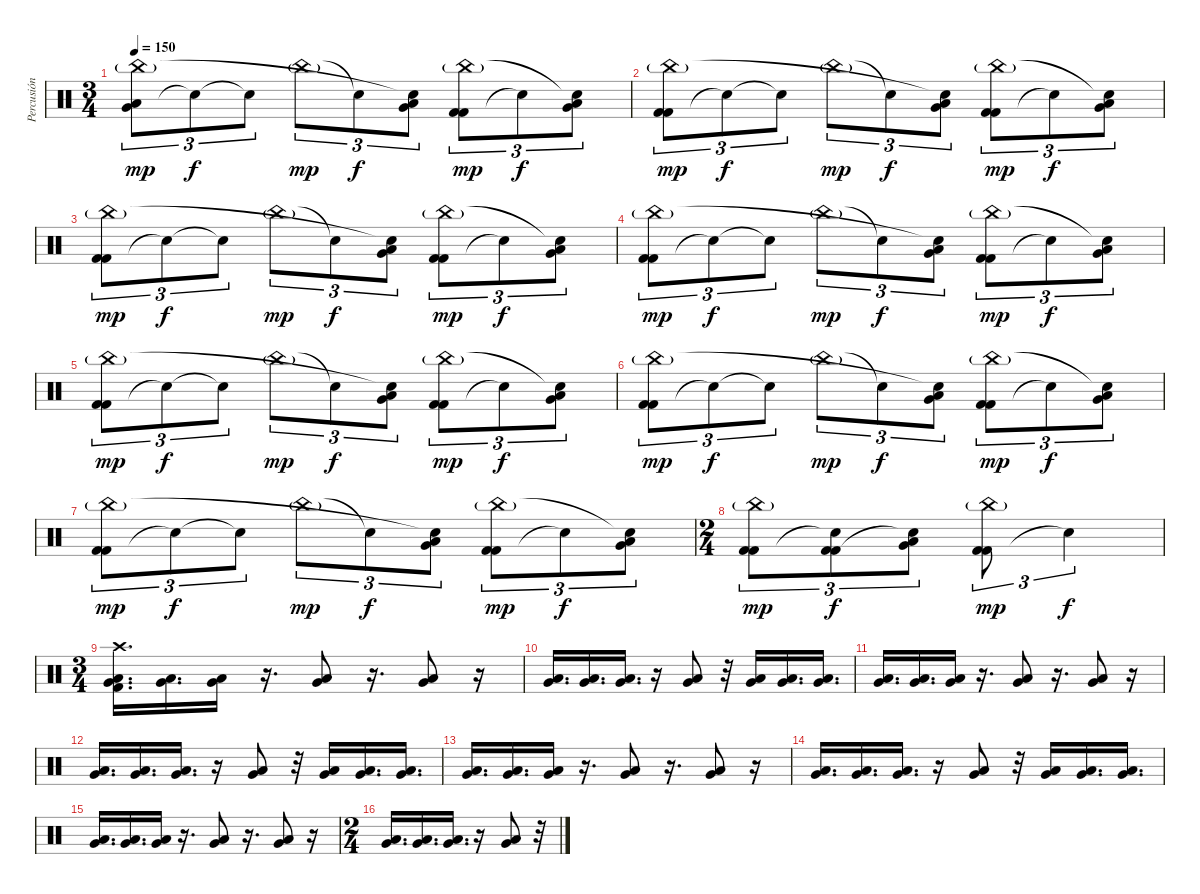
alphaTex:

\track ("Percusión" "Percusión") {instrument percussion}
\staff {score}
\articulation defaults
\ts (3 4)
\tempo 150
\clef neutral
\ks c
("Low Floor Tom (hit)" "Very Low Tom (hit)" "China (hit)"{g}).8{tu (3 2) dy mp} "Snare (hit)"{t}.8{tu (3 2) dy f} "Snare (hit)"{t}.8{tu (3 2)} "China (hit)"{g}.8{tu (3 2) dy mp} "Snare (hit)"{t}.8{tu (3 2) dy f} ("Low Floor Tom (hit)" "Very Low Tom (hit)" "Snare (hit)"{t}).8{tu (3 2)} ("Kick (hit) 2" "Kick (hit) 2" "China (hit)"{g}).8{tu (3 2) dy mp} "Snare (hit)"{t}.8{tu (3 2) dy f} ("Low Floor Tom (hit)" "Very Low Tom (hit)" "Snare (hit)"{t}).8{tu (3 2)} |
("Kick (hit) 2" "Kick (hit) 2" "China (hit)"{g}).8{tu (3 2) dy mp} "Snare (hit)"{t}.8{tu (3 2) dy f} "Snare (hit)"{t}.8{tu (3 2)} "China (hit)"{g}.8{tu (3 2) dy mp} "Snare (hit)"{t}.8{tu (3 2) dy f} ("Low Floor Tom (hit)" "Very Low Tom (hit)" "Snare (hit)"{t}).8{tu (3 2)} ("Kick (hit) 2" "Kick (hit) 2" "China (hit)"{g}).8{tu (3 2) dy mp} "Snare (hit)"{t}.8{tu (3 2) dy f} ("Low Floor Tom (hit)" "Very Low Tom (hit)" "Snare (hit)"{t}).8{tu (3 2)} |
("Kick (hit) 2" "Kick (hit) 2" "China (hit)"{g}).8{tu (3 2) dy mp} "Snare (hit)"{t}.8{tu (3 2) dy f} "Snare (hit)"{t}.8{tu (3 2)} "China (hit)"{g}.8{tu (3 2) dy mp} "Snare (hit)"{t}.8{tu (3 2) dy f} ("Low Floor Tom (hit)" "Very Low Tom (hit)" "Snare (hit)"{t}).8{tu (3 2)} ("Kick (hit) 2" "Kick (hit) 2" "China (hit)"{g}).8{tu (3 2) dy mp} "Snare (hit)"{t}.8{tu (3 2) dy f} ("Low Floor Tom (hit)" "Very Low Tom (hit)" "Snare (hit)"{t}).8{tu (3 2)} |
("Kick (hit) 2" "Kick (hit) 2" "China (hit)"{g}).8{tu (3 2) dy mp} "Snare (hit)"{t}.8{tu (3 2) dy f} "Snare (hit)"{t}.8{tu (3 2)} "China (hit)"{g}.8{tu (3 2) dy mp} "Snare (hit)"{t}.8{tu (3 2) dy f} ("Low Floor Tom (hit)" "Very Low Tom (hit)" "Snare (hit)"{t}).8{tu (3 2)} ("Kick (hit) 2" "Kick (hit) 2" "China (hit)"{g}).8{tu (3 2) dy mp} "Snare (hit)"{t}.8{tu (3 2) dy f} ("Low Floor Tom (hit)" "Very Low Tom (hit)" "Snare (hit)"{t}).8{tu (3 2)} |
("Kick (hit) 2" "Kick (hit) 2" "China (hit)"{g}).8{tu (3 2) dy mp} "Snare (hit)"{t}.8{tu (3 2) dy f} "Snare (hit)"{t}.8{tu (3 2)} "China (hit)"{g}.8{tu (3 2) dy mp} "Snare (hit)"{t}.8{tu (3 2) dy f} ("Low Floor Tom (hit)" "Very Low Tom (hit)" "Snare (hit)"{t}).8{tu (3 2)} ("Kick (hit) 2" "Kick (hit) 2" "China (hit)"{g}).8{tu (3 2) dy mp} "Snare (hit)"{t}.8{tu (3 2) dy f} ("Low Floor Tom (hit)" "Very Low Tom (hit)" "Snare (hit)"{t}).8{tu (3 2)} |
("Kick (hit) 2" "Kick (hit) 2" "China (hit)"{g}).8{tu (3 2) dy mp} "Snare (hit)"{t}.8{tu (3 2) dy f} "Snare (hit)"{t}.8{tu (3 2)} "China (hit)"{g}.8{tu (3 2) dy mp} "Snare (hit)"{t}.8{tu (3 2) dy f} ("Low Floor Tom (hit)" "Very Low Tom (hit)" "Snare (hit)"{t}).8{tu (3 2)} ("Kick (hit) 2" "Kick (hit) 2" "China (hit)"{g}).8{tu (3 2) dy mp} "Snare (hit)"{t}.8{tu (3 2) dy f} ("Low Floor Tom (hit)" "Very Low Tom (hit)" "Snare (hit)"{t}).8{tu (3 2)} |
("Kick (hit) 2" "Kick (hit) 2" "China (hit)"{g}).8{tu (3 2) dy mp} "Snare (hit)"{t}.8{tu (3 2) dy f} "Snare (hit)"{t}.8{tu (3 2)} "China (hit)"{g}.8{tu (3 2) dy mp} "Snare (hit)"{t}.8{tu (3 2) dy f} ("Low Floor Tom (hit)" "Very Low Tom (hit)" "Snare (hit)"{t}).8{tu (3 2)} ("Kick (hit) 2" "Kick (hit) 2" "China (hit)"{g}).8{tu (3 2) dy mp} "Snare (hit)"{t}.8{tu (3 2) dy f} ("Low Floor Tom (hit)" "Very Low Tom (hit)" "Snare (hit)"{t}).8{tu (3 2)} |
\ts (2 4)
("Kick (hit) 2" "Kick (hit) 2" "China (hit)"{g}).8{tu (3 2) dy mp} ("Snare (hit)"{t} "Kick (hit) 2" "Kick (hit) 2").8{tu (3 2) dy f} ("Low Floor Tom (hit)" "Very Low Tom (hit)" "Snare (hit)"{t}).8{tu (3 2)} ("Kick (hit) 2" "Kick (hit) 2" "China (hit)"{g}).8{tu (3 2) dy mp} "Snare (hit)"{t}.4{tu (3 2) dy f} |
\ts (3 4)
("Crash high (hit)" "Very Low Tom (hit)" "Low Floor Tom (hit)" "Kick (hit) 2").16{d} ("Very Low Tom (hit)" "Low Floor Tom (hit)").16{d} ("Very Low Tom (hit)" "Low Floor Tom (hit)").16 r.16{d} ("Very Low Tom (hit)" "Low Floor Tom (hit)").8 r.16{d} ("Very Low Tom (hit)" "Low Floor Tom (hit)").8 r.16 |
("Low Floor Tom (hit)" "Very Low Tom (hit)").16{d} ("Low Floor Tom (hit)" "Very Low Tom (hit)").16{d} ("Low Floor Tom (hit)" "Very Low Tom (hit)").16{d} r.16 ("Low Floor Tom (hit)" "Very Low Tom (hit)").8 r.32 ("Low Floor Tom (hit)" "Very Low Tom (hit)").16 ("Low Floor Tom (hit)" "Very Low Tom (hit)").16{d} ("Low Floor Tom (hit)" "Very Low Tom (hit)").16{d} |
("Very Low Tom (hit)" "Low Floor Tom (hit)").16{d} ("Very Low Tom (hit)" "Low Floor Tom (hit)").16{d} ("Very Low Tom (hit)" "Low Floor Tom (hit)").16 r.16{d} ("Very Low Tom (hit)" "Low Floor Tom (hit)").8 r.16{d} ("Very Low Tom (hit)" "Low Floor Tom (hit)").8 r.16 |
("Low Floor Tom (hit)" "Very Low Tom (hit)").16{d} ("Low Floor Tom (hit)" "Very Low Tom (hit)").16{d} ("Low Floor Tom (hit)" "Very Low Tom (hit)").16{d} r.16 ("Low Floor Tom (hit)" "Very Low Tom (hit)").8 r.32 ("Low Floor Tom (hit)" "Very Low Tom (hit)").16 ("Low Floor Tom (hit)" "Very Low Tom (hit)").16{d} ("Low Floor Tom (hit)" "Very Low Tom (hit)").16{d} |
("Very Low Tom (hit)" "Low Floor Tom (hit)").16{d} ("Very Low Tom (hit)" "Low Floor Tom (hit)").16{d} ("Very Low Tom (hit)" "Low Floor Tom (hit)").16 r.16{d} ("Very Low Tom (hit)" "Low Floor Tom (hit)").8 r.16{d} ("Very Low Tom (hit)" "Low Floor Tom (hit)").8 r.16 |
("Low Floor Tom (hit)" "Very Low Tom (hit)").16{d} ("Low Floor Tom (hit)" "Very Low Tom (hit)").16{d} ("Low Floor Tom (hit)" "Very Low Tom (hit)").16{d} r.16 ("Low Floor Tom (hit)" "Very Low Tom (hit)").8 r.32 ("Low Floor Tom (hit)" "Very Low Tom (hit)").16 ("Low Floor Tom (hit)" "Very Low Tom (hit)").16{d} ("Low Floor Tom (hit)" "Very Low Tom (hit)").16{d} |
("Very Low Tom (hit)" "Low Floor Tom (hit)").16{d} ("Very Low Tom (hit)" "Low Floor Tom (hit)").16{d} ("Very Low Tom (hit)" "Low Floor Tom (hit)").16 r.16{d} ("Very Low Tom (hit)" "Low Floor Tom (hit)").8 r.16{d} ("Very Low Tom (hit)" "Low Floor Tom (hit)").8 r.16 |
\ts (2 4)
("Low Floor Tom (hit)" "Very Low Tom (hit)").16{d} ("Low Floor Tom (hit)" "Very Low Tom (hit)").16{d} ("Low Floor Tom (hit)" "Very Low Tom (hit)").16{d} r.16 ("Low Floor Tom (hit)" "Very Low Tom (hit)").8 r.32
